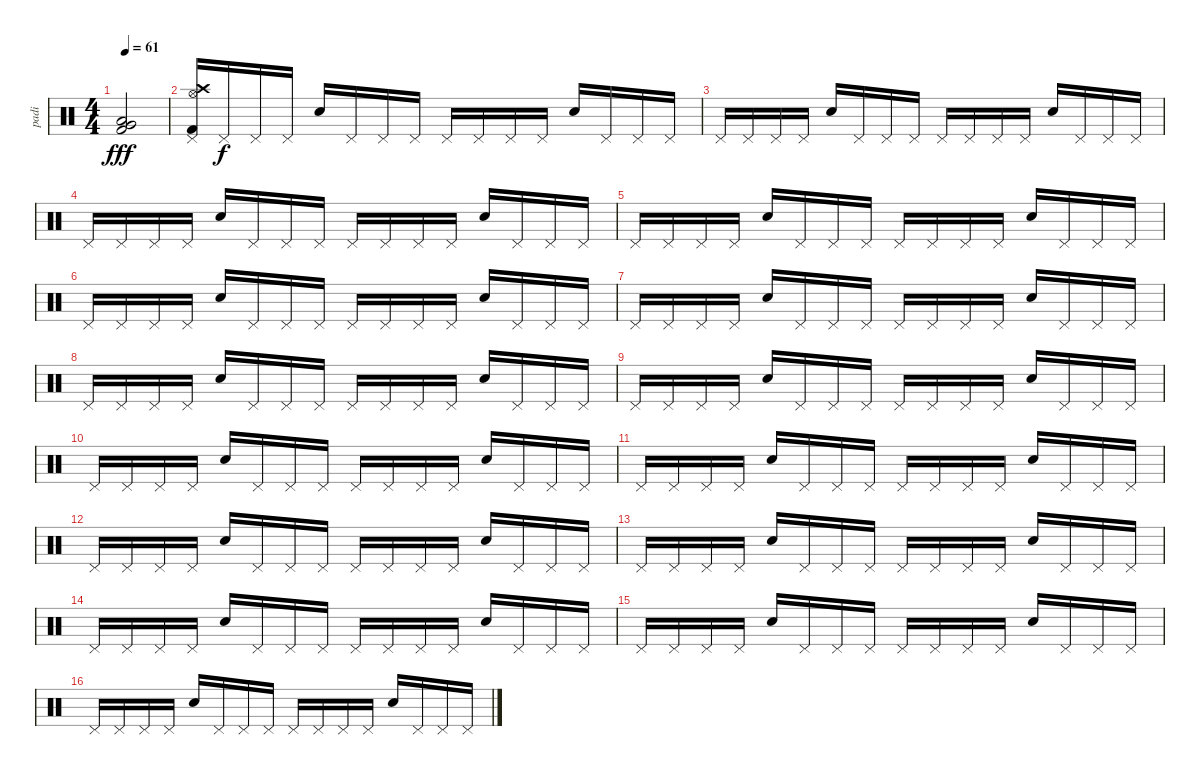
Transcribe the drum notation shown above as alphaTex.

\track ("padi" "padi") {instrument percussion}
\staff {score}
\articulation defaults
\ts (4 4)
\tempo 61
\clef neutral
\ks c
("Low Floor Tom (hit)" "Very Low Tom (hit)" "Kick (hit) 2").2{dy fff volume 16} |
("Crash high (hit)" "Hi-Hat (open)" "Kick (hit) 2" "Pedal Hi-Hat (hit)").16{volume 13} "Pedal Hi-Hat (hit)".16{dy f} "Pedal Hi-Hat (hit)".16 "Pedal Hi-Hat (hit)".16 "Snare (hit) 2".16 "Pedal Hi-Hat (hit)".16 "Pedal Hi-Hat (hit)".16 "Pedal Hi-Hat (hit)".16 "Pedal Hi-Hat (hit)".16 "Pedal Hi-Hat (hit)".16 "Pedal Hi-Hat (hit)".16 "Pedal Hi-Hat (hit)".16 "Snare (hit) 2".16 "Pedal Hi-Hat (hit)".16 "Pedal Hi-Hat (hit)".16 "Pedal Hi-Hat (hit)".16 |
"Pedal Hi-Hat (hit)".16 "Pedal Hi-Hat (hit)".16 "Pedal Hi-Hat (hit)".16 "Pedal Hi-Hat (hit)".16 "Snare (hit) 2".16 "Pedal Hi-Hat (hit)".16 "Pedal Hi-Hat (hit)".16 "Pedal Hi-Hat (hit)".16 "Pedal Hi-Hat (hit)".16 "Pedal Hi-Hat (hit)".16 "Pedal Hi-Hat (hit)".16 "Pedal Hi-Hat (hit)".16 "Snare (hit) 2".16 "Pedal Hi-Hat (hit)".16 "Pedal Hi-Hat (hit)".16 "Pedal Hi-Hat (hit)".16 |
"Pedal Hi-Hat (hit)".16 "Pedal Hi-Hat (hit)".16 "Pedal Hi-Hat (hit)".16 "Pedal Hi-Hat (hit)".16 "Snare (hit) 2".16 "Pedal Hi-Hat (hit)".16 "Pedal Hi-Hat (hit)".16 "Pedal Hi-Hat (hit)".16 "Pedal Hi-Hat (hit)".16 "Pedal Hi-Hat (hit)".16 "Pedal Hi-Hat (hit)".16 "Pedal Hi-Hat (hit)".16 "Snare (hit) 2".16 "Pedal Hi-Hat (hit)".16 "Pedal Hi-Hat (hit)".16 "Pedal Hi-Hat (hit)".16 |
"Pedal Hi-Hat (hit)".16 "Pedal Hi-Hat (hit)".16 "Pedal Hi-Hat (hit)".16 "Pedal Hi-Hat (hit)".16 "Snare (hit) 2".16 "Pedal Hi-Hat (hit)".16 "Pedal Hi-Hat (hit)".16 "Pedal Hi-Hat (hit)".16 "Pedal Hi-Hat (hit)".16 "Pedal Hi-Hat (hit)".16 "Pedal Hi-Hat (hit)".16 "Pedal Hi-Hat (hit)".16 "Snare (hit) 2".16 "Pedal Hi-Hat (hit)".16 "Pedal Hi-Hat (hit)".16 "Pedal Hi-Hat (hit)".16 |
"Pedal Hi-Hat (hit)".16 "Pedal Hi-Hat (hit)".16 "Pedal Hi-Hat (hit)".16 "Pedal Hi-Hat (hit)".16 "Snare (hit) 2".16 "Pedal Hi-Hat (hit)".16 "Pedal Hi-Hat (hit)".16 "Pedal Hi-Hat (hit)".16 "Pedal Hi-Hat (hit)".16 "Pedal Hi-Hat (hit)".16 "Pedal Hi-Hat (hit)".16 "Pedal Hi-Hat (hit)".16 "Snare (hit) 2".16 "Pedal Hi-Hat (hit)".16 "Pedal Hi-Hat (hit)".16 "Pedal Hi-Hat (hit)".16 |
"Pedal Hi-Hat (hit)".16 "Pedal Hi-Hat (hit)".16 "Pedal Hi-Hat (hit)".16 "Pedal Hi-Hat (hit)".16 "Snare (hit) 2".16 "Pedal Hi-Hat (hit)".16 "Pedal Hi-Hat (hit)".16 "Pedal Hi-Hat (hit)".16 "Pedal Hi-Hat (hit)".16 "Pedal Hi-Hat (hit)".16 "Pedal Hi-Hat (hit)".16 "Pedal Hi-Hat (hit)".16 "Snare (hit) 2".16 "Pedal Hi-Hat (hit)".16 "Pedal Hi-Hat (hit)".16 "Pedal Hi-Hat (hit)".16 |
"Pedal Hi-Hat (hit)".16 "Pedal Hi-Hat (hit)".16 "Pedal Hi-Hat (hit)".16 "Pedal Hi-Hat (hit)".16 "Snare (hit) 2".16 "Pedal Hi-Hat (hit)".16 "Pedal Hi-Hat (hit)".16 "Pedal Hi-Hat (hit)".16 "Pedal Hi-Hat (hit)".16 "Pedal Hi-Hat (hit)".16 "Pedal Hi-Hat (hit)".16 "Pedal Hi-Hat (hit)".16 "Snare (hit) 2".16 "Pedal Hi-Hat (hit)".16 "Pedal Hi-Hat (hit)".16 "Pedal Hi-Hat (hit)".16 |
"Pedal Hi-Hat (hit)".16 "Pedal Hi-Hat (hit)".16 "Pedal Hi-Hat (hit)".16 "Pedal Hi-Hat (hit)".16 "Snare (hit) 2".16 "Pedal Hi-Hat (hit)".16 "Pedal Hi-Hat (hit)".16 "Pedal Hi-Hat (hit)".16 "Pedal Hi-Hat (hit)".16 "Pedal Hi-Hat (hit)".16 "Pedal Hi-Hat (hit)".16 "Pedal Hi-Hat (hit)".16 "Snare (hit) 2".16 "Pedal Hi-Hat (hit)".16 "Pedal Hi-Hat (hit)".16 "Pedal Hi-Hat (hit)".16 |
"Pedal Hi-Hat (hit)".16 "Pedal Hi-Hat (hit)".16 "Pedal Hi-Hat (hit)".16 "Pedal Hi-Hat (hit)".16 "Snare (hit) 2".16 "Pedal Hi-Hat (hit)".16 "Pedal Hi-Hat (hit)".16 "Pedal Hi-Hat (hit)".16 "Pedal Hi-Hat (hit)".16 "Pedal Hi-Hat (hit)".16 "Pedal Hi-Hat (hit)".16 "Pedal Hi-Hat (hit)".16 "Snare (hit) 2".16 "Pedal Hi-Hat (hit)".16 "Pedal Hi-Hat (hit)".16 "Pedal Hi-Hat (hit)".16 |
"Pedal Hi-Hat (hit)".16 "Pedal Hi-Hat (hit)".16 "Pedal Hi-Hat (hit)".16 "Pedal Hi-Hat (hit)".16 "Snare (hit) 2".16 "Pedal Hi-Hat (hit)".16 "Pedal Hi-Hat (hit)".16 "Pedal Hi-Hat (hit)".16 "Pedal Hi-Hat (hit)".16 "Pedal Hi-Hat (hit)".16 "Pedal Hi-Hat (hit)".16 "Pedal Hi-Hat (hit)".16 "Snare (hit) 2".16 "Pedal Hi-Hat (hit)".16 "Pedal Hi-Hat (hit)".16 "Pedal Hi-Hat (hit)".16 |
"Pedal Hi-Hat (hit)".16 "Pedal Hi-Hat (hit)".16 "Pedal Hi-Hat (hit)".16 "Pedal Hi-Hat (hit)".16 "Snare (hit) 2".16 "Pedal Hi-Hat (hit)".16 "Pedal Hi-Hat (hit)".16 "Pedal Hi-Hat (hit)".16 "Pedal Hi-Hat (hit)".16 "Pedal Hi-Hat (hit)".16 "Pedal Hi-Hat (hit)".16 "Pedal Hi-Hat (hit)".16 "Snare (hit) 2".16 "Pedal Hi-Hat (hit)".16 "Pedal Hi-Hat (hit)".16 "Pedal Hi-Hat (hit)".16 |
"Pedal Hi-Hat (hit)".16 "Pedal Hi-Hat (hit)".16 "Pedal Hi-Hat (hit)".16 "Pedal Hi-Hat (hit)".16 "Snare (hit) 2".16 "Pedal Hi-Hat (hit)".16 "Pedal Hi-Hat (hit)".16 "Pedal Hi-Hat (hit)".16 "Pedal Hi-Hat (hit)".16 "Pedal Hi-Hat (hit)".16 "Pedal Hi-Hat (hit)".16 "Pedal Hi-Hat (hit)".16 "Snare (hit) 2".16 "Pedal Hi-Hat (hit)".16 "Pedal Hi-Hat (hit)".16 "Pedal Hi-Hat (hit)".16 |
"Pedal Hi-Hat (hit)".16 "Pedal Hi-Hat (hit)".16 "Pedal Hi-Hat (hit)".16 "Pedal Hi-Hat (hit)".16 "Snare (hit) 2".16 "Pedal Hi-Hat (hit)".16 "Pedal Hi-Hat (hit)".16 "Pedal Hi-Hat (hit)".16 "Pedal Hi-Hat (hit)".16 "Pedal Hi-Hat (hit)".16 "Pedal Hi-Hat (hit)".16 "Pedal Hi-Hat (hit)".16 "Snare (hit) 2".16 "Pedal Hi-Hat (hit)".16 "Pedal Hi-Hat (hit)".16 "Pedal Hi-Hat (hit)".16 |
"Pedal Hi-Hat (hit)".16 "Pedal Hi-Hat (hit)".16 "Pedal Hi-Hat (hit)".16 "Pedal Hi-Hat (hit)".16 "Snare (hit) 2".16 "Pedal Hi-Hat (hit)".16 "Pedal Hi-Hat (hit)".16 "Pedal Hi-Hat (hit)".16 "Pedal Hi-Hat (hit)".16 "Pedal Hi-Hat (hit)".16 "Pedal Hi-Hat (hit)".16 "Pedal Hi-Hat (hit)".16 "Snare (hit) 2".16 "Pedal Hi-Hat (hit)".16 "Pedal Hi-Hat (hit)".16 "Pedal Hi-Hat (hit)".16 |
"Pedal Hi-Hat (hit)".16 "Pedal Hi-Hat (hit)".16 "Pedal Hi-Hat (hit)".16 "Pedal Hi-Hat (hit)".16 "Snare (hit) 2".16 "Pedal Hi-Hat (hit)".16 "Pedal Hi-Hat (hit)".16 "Pedal Hi-Hat (hit)".16 "Pedal Hi-Hat (hit)".16 "Pedal Hi-Hat (hit)".16 "Pedal Hi-Hat (hit)".16 "Pedal Hi-Hat (hit)".16 "Snare (hit) 2".16 "Pedal Hi-Hat (hit)".16 "Pedal Hi-Hat (hit)".16 "Pedal Hi-Hat (hit)".16
